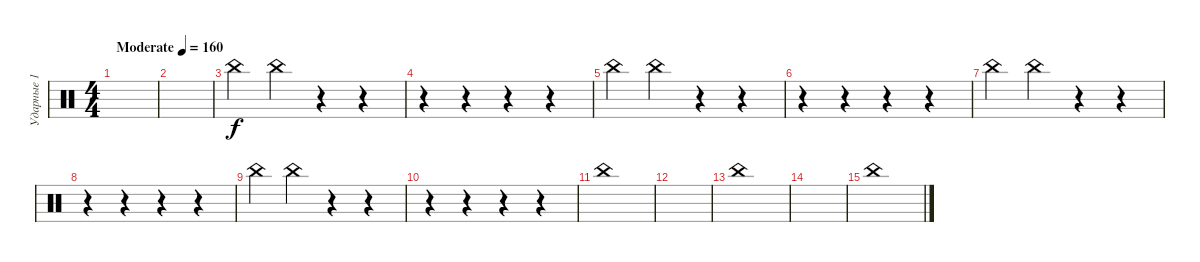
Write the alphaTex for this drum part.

\track ("Ударные 1" "Ударные 1") {instrument percussion}
\staff {score}
\articulation defaults
\ts (4 4)
\tempo (160 "Moderate")
\clef neutral
\ks c
|
|
"China (hit)".4 "China (hit)".4 r.4 r.4 |
r.4 r.4 r.4 r.4 |
"China (hit)".4 "China (hit)".4 r.4 r.4 |
r.4 r.4 r.4 r.4 |
"China (hit)".4 "China (hit)".4 r.4 r.4 |
r.4 r.4 r.4 r.4 |
"China (hit)".4 "China (hit)".4 r.4 r.4 |
r.4 r.4 r.4 r.4 |
"China (hit)".1 |
|
"China (hit)".1 |
|
"China (hit)".1
